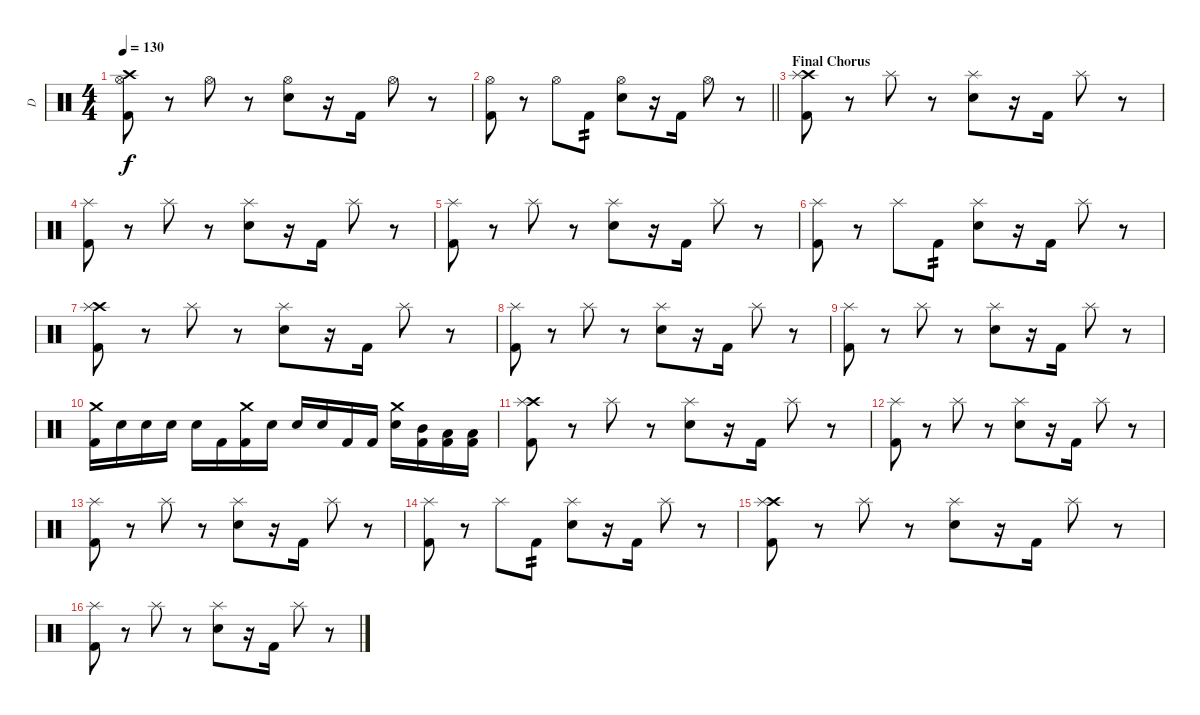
\track ("D" "D") {instrument percussion}
\staff {score}
\articulation defaults
\ts (4 4)
\tempo 130
\clef neutral
\ks c
("Crash high (hit)" "Kick (hit) 2" "Hi-Hat (open)").8{dy f} r.8 "Hi-Hat (open)".8 r.8 ("Electric Snare (hit)" "Hi-Hat (open)").8 r.16 "Kick (hit) 2".16 "Hi-Hat (open)".8 r.8 |
\barLineRight lightlight
("Kick (hit) 2" "Hi-Hat (open)").8 r.8 "Hi-Hat (open)".8 "Kick (hit) 2".8{tp 2} ("Electric Snare (hit)" "Hi-Hat (open)").8 r.16 "Kick (hit) 2".16 "Hi-Hat (open)".8 r.8 |
\section ("" "Final Chorus")
("Crash high (hit)" "Kick (hit) 2" "Splash (hit)").8 r.8 "Splash (hit)".8 r.8 ("Electric Snare (hit)" "Splash (hit)").8 r.16 "Kick (hit) 2".16 "Splash (hit)".8 r.8 |
("Kick (hit) 2" "Splash (hit)").8 r.8 "Splash (hit)".8 r.8 ("Electric Snare (hit)" "Splash (hit)").8 r.16 "Kick (hit) 2".16 "Splash (hit)".8 r.8 |
("Kick (hit) 2" "Splash (hit)").8 r.8 "Splash (hit)".8 r.8 ("Electric Snare (hit)" "Splash (hit)").8 r.16 "Kick (hit) 2".16 "Splash (hit)".8 r.8 |
("Kick (hit) 2" "Splash (hit)").8 r.8 "Splash (hit)".8 "Kick (hit) 2".8{tp 2} ("Electric Snare (hit)" "Splash (hit)").8 r.16 "Kick (hit) 2".16 "Splash (hit)".8 r.8 |
("Crash high (hit)" "Kick (hit) 2" "Splash (hit)").8 r.8 "Splash (hit)".8 r.8 ("Electric Snare (hit)" "Splash (hit)").8 r.16 "Kick (hit) 2".16 "Splash (hit)".8 r.8 |
("Kick (hit) 2" "Splash (hit)").8 r.8 "Splash (hit)".8 r.8 ("Electric Snare (hit)" "Splash (hit)").8 r.16 "Kick (hit) 2".16 "Splash (hit)".8 r.8 |
("Kick (hit) 2" "Splash (hit)").8 r.8 "Splash (hit)".8 r.8 ("Electric Snare (hit)" "Splash (hit)").8 r.16 "Kick (hit) 2".16 "Splash (hit)".8 r.8 |
("Crash medium (hit)" "Kick (hit) 2").16 "Electric Snare (hit)".16 "Electric Snare (hit)".16 "Electric Snare (hit)".16 "Electric Snare (hit)".16 "Kick (hit) 2".16 ("Crash medium (hit)" "Kick (hit) 2").16 "Electric Snare (hit)".16 "Electric Snare (hit)".16 "Electric Snare (hit)".16 "Kick (hit) 2".16 "Kick (hit) 2".16 ("Crash medium (hit)" "Electric Snare (hit)").16 ("Mid Tom (hit)" "Kick (hit) 2").16 ("Low Tom (hit)" "Kick (hit) 2").16 ("Low Floor Tom (hit)" "Kick (hit) 2").16 |
("Crash high (hit)" "Kick (hit) 2" "Splash (hit)").8 r.8 "Splash (hit)".8 r.8 ("Electric Snare (hit)" "Splash (hit)").8 r.16 "Kick (hit) 2".16 "Splash (hit)".8 r.8 |
("Kick (hit) 2" "Splash (hit)").8 r.8 "Splash (hit)".8 r.8 ("Electric Snare (hit)" "Splash (hit)").8 r.16 "Kick (hit) 2".16 "Splash (hit)".8 r.8 |
("Kick (hit) 2" "Splash (hit)").8 r.8 "Splash (hit)".8 r.8 ("Electric Snare (hit)" "Splash (hit)").8 r.16 "Kick (hit) 2".16 "Splash (hit)".8 r.8 |
("Kick (hit) 2" "Splash (hit)").8 r.8 "Splash (hit)".8 "Kick (hit) 2".8{tp 2} ("Electric Snare (hit)" "Splash (hit)").8 r.16 "Kick (hit) 2".16 "Splash (hit)".8 r.8 |
("Crash high (hit)" "Kick (hit) 2" "Splash (hit)").8 r.8 "Splash (hit)".8 r.8 ("Electric Snare (hit)" "Splash (hit)").8 r.16 "Kick (hit) 2".16 "Splash (hit)".8 r.8 |
("Kick (hit) 2" "Splash (hit)").8 r.8 "Splash (hit)".8 r.8 ("Electric Snare (hit)" "Splash (hit)").8 r.16 "Kick (hit) 2".16 "Splash (hit)".8 r.8
